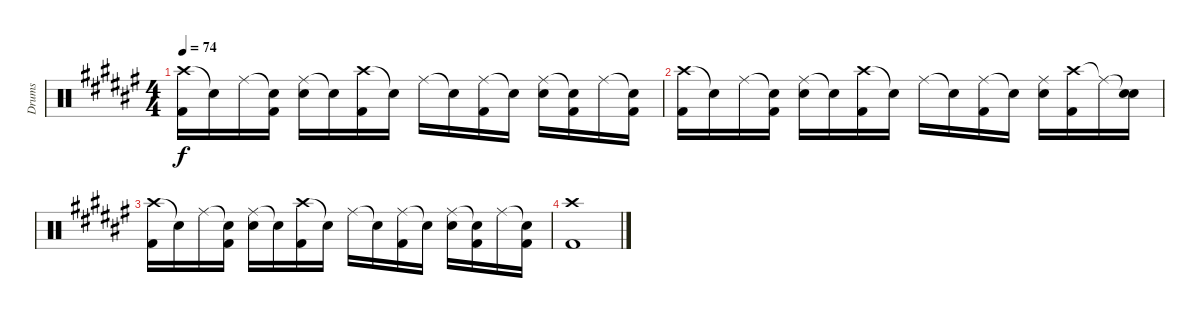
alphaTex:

\track ("Drums" "Drums") {instrument percussion}
\staff {score}
\articulation defaults
\ts (4 4)
\tempo 74
\clef neutral
\ks f#
("Crash high (hit)" "Kick (hit) 2").16{dy f} "Snare (hit)"{t}.16 "Ride (middle)".16 ("Snare (hit)"{t} "Kick (hit) 2").16 ("Ride (middle)" "Electric Snare (hit)").16 "Snare (hit)"{t}.16 ("Crash high (hit)" "Kick (hit) 2").16 "Snare (hit)"{t}.16 "Ride (middle)".16 "Snare (hit)"{t}.16 ("Ride (middle)" "Kick (hit) 2").16 "Snare (hit)"{t}.16 ("Ride (middle)" "Electric Snare (hit)").16 ("Snare (hit)"{t} "Kick (hit) 2").16 "Ride (middle)".16 ("Snare (hit)"{t} "Kick (hit) 2").16 |
("Crash high (hit)" "Kick (hit) 2").16 "Snare (hit)"{t}.16 "Ride (middle)".16 ("Snare (hit)"{t} "Kick (hit) 2").16 ("Ride (middle)" "Electric Snare (hit)").16 "Snare (hit)"{t}.16 ("Crash high (hit)" "Kick (hit) 2").16 "Snare (hit)"{t}.16 "Ride (middle)".16 "Snare (hit)"{t}.16 ("Ride (middle)" "Kick (hit) 2").16 "Snare (hit)"{t}.16 ("Ride (middle)" "Electric Snare (hit)").16 ("Crash high (hit)" "Kick (hit) 2").16 "Ride (middle)"{t}.16 ("Snare (hit)"{t} "Electric Snare (hit)").16 |
("Crash high (hit)" "Kick (hit) 2").16 "Snare (hit)"{t}.16 "Ride (middle)".16 ("Snare (hit)"{t} "Kick (hit) 2").16 ("Ride (middle)" "Electric Snare (hit)").16 "Snare (hit)"{t}.16 ("Crash high (hit)" "Kick (hit) 2").16 "Snare (hit)"{t}.16 "Ride (middle)".16 "Snare (hit)"{t}.16 ("Ride (middle)" "Kick (hit) 2").16 "Snare (hit)"{t}.16 ("Ride (middle)" "Electric Snare (hit)").16 ("Snare (hit)"{t} "Kick (hit) 2").16 "Ride (middle)".16 ("Snare (hit)"{t} "Kick (hit) 2").16 |
("Crash high (hit)" "Kick (hit) 2").1
